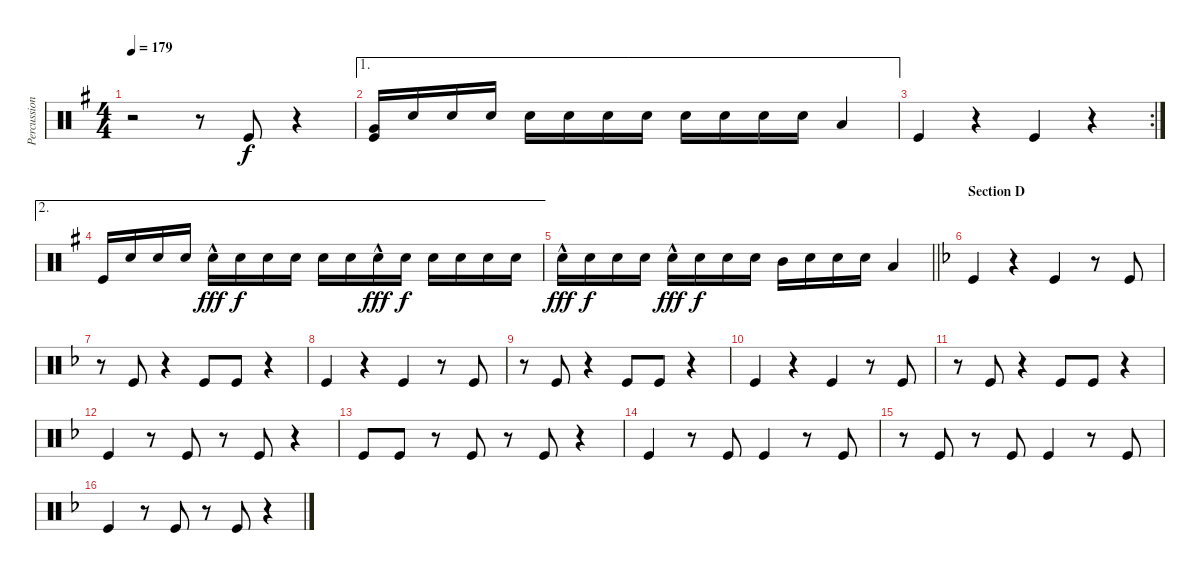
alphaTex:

\track ("Percussion 02" "Percussion") {instrument percussion}
\staff {score}
\articulation defaults
\ts (4 4)
\tempo 179
\clef neutral
\ks g
r.2{dy f} r.8 "Kick (hit)".8 r.4 |
\ae 1
("Very Low Tom (hit)" "Kick (hit)").16 "Snare (hit) 2".16 "Snare (hit) 2".16 "Snare (hit) 2".16 "Snare (hit) 2".16 "Snare (hit) 2".16 "Snare (hit) 2".16 "Snare (hit) 2".16 "Snare (hit) 2".16 "Snare (hit) 2".16 "Snare (hit) 2".16 "Snare (hit) 2".16 "Low Tom (hit)".4 |
\rc 2 "Kick (hit)".4
r.4 "Kick (hit)".4 r.4 |
\ae 2 "Kick (hit)".16 "Snare (hit) 2".16 "Snare (hit) 2".16 "Snare (hit) 2".16 "Snare (hit) 2"{hac}.16{dy fff} "Snare (hit) 2".16{dy f} "Snare (hit) 2".16 "Snare (hit) 2".16 "Snare (hit) 2".16 "Snare (hit) 2".16 "Snare (hit) 2"{hac}.16{dy fff} "Snare (hit) 2".16{dy f} "Snare (hit) 2".16 "Snare (hit) 2".16 "Snare (hit) 2".16 "Snare (hit) 2".16
|
\barLineRight lightlight "Snare (hit) 2"{hac}.16{dy fff} "Snare (hit) 2".16{dy f} "Snare (hit) 2".16 "Snare (hit) 2".16 "Snare (hit) 2"{hac}.16{dy fff} "Snare (hit) 2".16{dy f} "Snare (hit) 2".16 "Snare (hit) 2".16 "Mid Tom (hit)".16 "Snare (hit) 2".16 "Snare (hit) 2".16 "Snare (hit) 2".16 "Low Tom (hit)".4
|
\section ("" "Section D")
\ks dminor "Kick (hit)".4
r.4 "Kick (hit)".4 r.8 "Kick (hit)".8 |
r.8 "Kick (hit)".8 r.4 "Kick (hit)".8 "Kick (hit)".8 r.4 |
"Kick (hit)".4 r.4 "Kick (hit)".4 r.8 "Kick (hit)".8 |
r.8 "Kick (hit)".8 r.4 "Kick (hit)".8 "Kick (hit)".8 r.4 |
"Kick (hit)".4 r.4 "Kick (hit)".4 r.8 "Kick (hit)".8 |
r.8 "Kick (hit)".8 r.4 "Kick (hit)".8 "Kick (hit)".8 r.4 |
"Kick (hit)".4 r.8 "Kick (hit)".8 r.8 "Kick (hit)".8 r.4 |
"Kick (hit)".8 "Kick (hit)".8 r.8 "Kick (hit)".8 r.8 "Kick (hit)".8 r.4 |
"Kick (hit)".4 r.8 "Kick (hit)".8 "Kick (hit)".4 r.8 "Kick (hit)".8 |
r.8 "Kick (hit)".8 r.8 "Kick (hit)".8 "Kick (hit)".4 r.8 "Kick (hit)".8 |
"Kick (hit)".4 r.8 "Kick (hit)".8 r.8 "Kick (hit)".8 r.4
